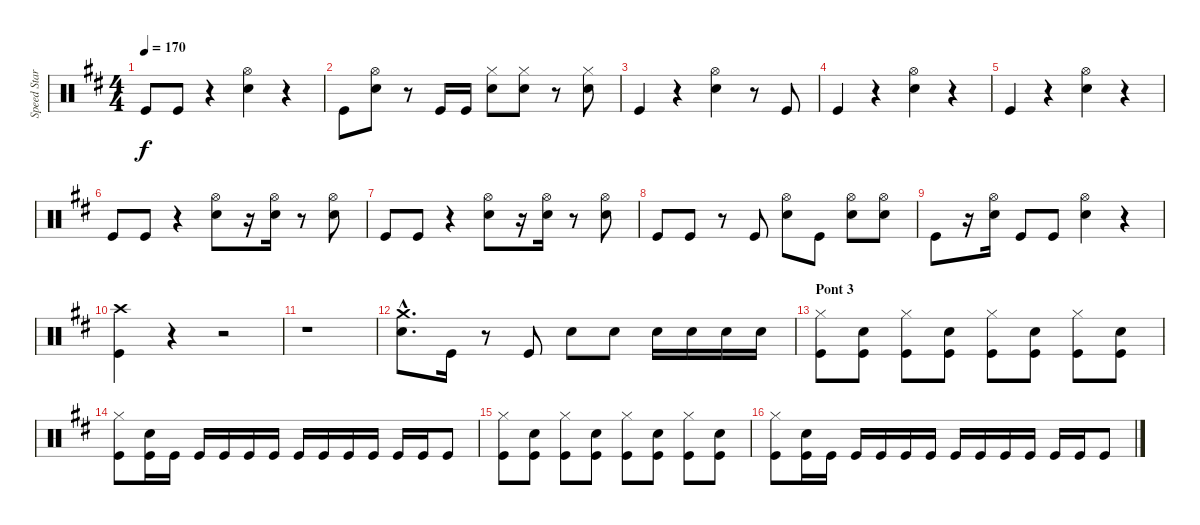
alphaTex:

\track ("Speed Star" "Speed Star") {instrument percussion}
\staff {score}
\articulation defaults
\ts (4 4)
\tempo 170
\clef neutral
\ks d "Kick (hit)".8{dy f} "Kick (hit)".8
r.4 ("Snare (hit) 2" "Hi-Hat (open)").4 r.4 |
"Kick (hit)".8 ("Snare (hit) 2" "Hi-Hat (open)").8 r.8 "Kick (hit)".16 "Kick (hit)".16 ("Snare (hit) 2" "Hi-Hat (closed)").8 ("Snare (hit) 2" "Hi-Hat (closed)").8 r.8 ("Snare (hit) 2" "Hi-Hat (closed)").8 |
"Kick (hit)".4 r.4 ("Snare (hit) 2" "Hi-Hat (open)").4 r.8 "Kick (hit)".8 |
"Kick (hit)".4 r.4 ("Snare (hit) 2" "Hi-Hat (open)").4 r.4 |
"Kick (hit)".4 r.4 ("Snare (hit) 2" "Hi-Hat (open)").4 r.4 |
"Kick (hit)".8 "Kick (hit)".8 r.4 ("Snare (hit) 2" "Hi-Hat (open)").8 r.16 ("Snare (hit) 2" "Hi-Hat (open)").16 r.8 ("Snare (hit) 2" "Hi-Hat (open)").8 |
"Kick (hit)".8 "Kick (hit)".8 r.4 ("Snare (hit) 2" "Hi-Hat (open)").8 r.16 ("Snare (hit) 2" "Hi-Hat (open)").16 r.8 ("Snare (hit) 2" "Hi-Hat (open)").8 |
"Kick (hit)".8 "Kick (hit)".8 r.8 "Kick (hit)".8 ("Snare (hit) 2" "Hi-Hat (open)").8 "Kick (hit)".8 ("Snare (hit) 2" "Hi-Hat (open)").8 ("Snare (hit) 2" "Hi-Hat (open)").8 |
"Kick (hit)".8 r.16 ("Snare (hit) 2" "Hi-Hat (open)").16 "Kick (hit)".8 "Kick (hit)".8 ("Snare (hit) 2" "Hi-Hat (open)").4 r.4 |
("Kick (hit)" "Crash high (hit)").4 r.4 r.2 |
r.1 |
("Snare (hit) 2"{hac} "Crash medium (hit)"{hac}).8{d} "Kick (hit)".16 r.8 "Kick (hit)".8 "Snare (hit) 2".8 "Snare (hit) 2".8 "Snare (hit) 2".16 "Snare (hit) 2".16 "Snare (hit) 2".16 "Snare (hit) 2".16 |
\section ("" "Pont 3")
("Kick (hit)" "Hi-Hat (closed)").8 ("Kick (hit)" "Snare (hit) 2").8 ("Kick (hit)" "Hi-Hat (closed)").8 ("Kick (hit)" "Snare (hit) 2").8 ("Kick (hit)" "Hi-Hat (closed)").8 ("Kick (hit)" "Snare (hit) 2").8 ("Kick (hit)" "Hi-Hat (closed)").8 ("Kick (hit)" "Snare (hit) 2").8 |
("Kick (hit)" "Hi-Hat (closed)").8 ("Kick (hit)" "Snare (hit) 2").16 "Kick (hit)".16 "Kick (hit)".16 "Kick (hit)".16 "Kick (hit)".16 "Kick (hit)".16 "Kick (hit)".16 "Kick (hit)".16 "Kick (hit)".16 "Kick (hit)".16 "Kick (hit)".16 "Kick (hit)".16 "Kick (hit)".8 |
("Kick (hit)" "Hi-Hat (closed)").8 ("Kick (hit)" "Snare (hit) 2").8 ("Kick (hit)" "Hi-Hat (closed)").8 ("Kick (hit)" "Snare (hit) 2").8 ("Kick (hit)" "Hi-Hat (closed)").8 ("Kick (hit)" "Snare (hit) 2").8 ("Kick (hit)" "Hi-Hat (closed)").8 ("Kick (hit)" "Snare (hit) 2").8 |
("Kick (hit)" "Hi-Hat (closed)").8 ("Kick (hit)" "Snare (hit) 2").16 "Kick (hit)".16 "Kick (hit)".16 "Kick (hit)".16 "Kick (hit)".16 "Kick (hit)".16 "Kick (hit)".16 "Kick (hit)".16 "Kick (hit)".16 "Kick (hit)".16 "Kick (hit)".16 "Kick (hit)".16 "Kick (hit)".8
